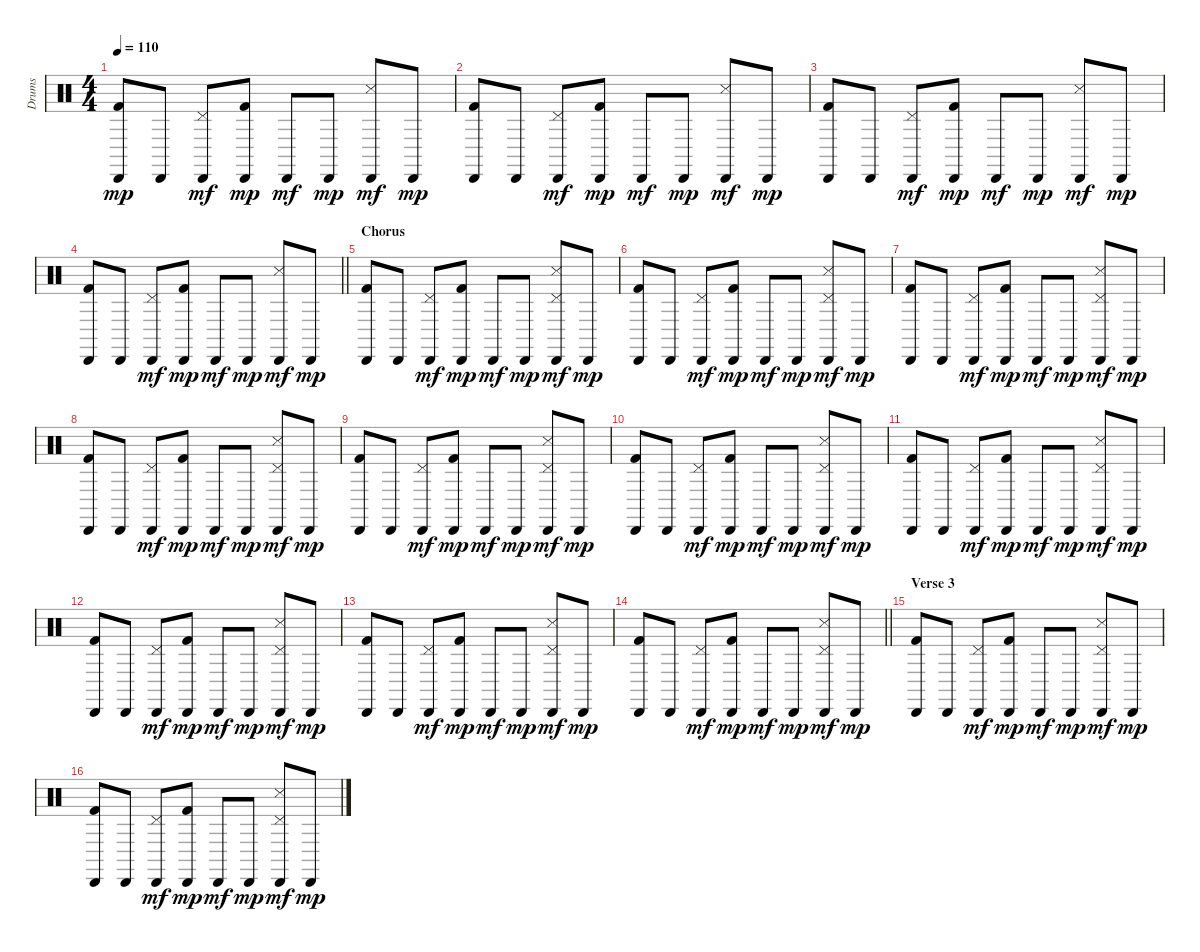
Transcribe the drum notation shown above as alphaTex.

\track ("Drums" "Drums") {instrument percussion}
\staff {score}
\articulation defaults
\ts (4 4)
\tempo 110
\clef neutral
\ks c
("Cabasa (hit)" "Kick (hit) 2").8{dy mp} "Cabasa (hit)".8 ("Cabasa (hit)" "Pedal Hi-Hat (hit)").8{dy mf} ("Cabasa (hit)" "Kick (hit) 2").8{dy mp} "Cabasa (hit)".8{dy mf} "Cabasa (hit)".8{dy mp} ("Cabasa (hit)" "Snare (side stick) 3").8{dy mf} "Cabasa (hit)".8{dy mp} |
("Cabasa (hit)" "Kick (hit) 2").8 "Cabasa (hit)".8 ("Cabasa (hit)" "Pedal Hi-Hat (hit)").8{dy mf} ("Cabasa (hit)" "Kick (hit) 2").8{dy mp} "Cabasa (hit)".8{dy mf} "Cabasa (hit)".8{dy mp} ("Cabasa (hit)" "Snare (side stick) 3").8{dy mf} "Cabasa (hit)".8{dy mp} |
("Cabasa (hit)" "Kick (hit) 2").8 "Cabasa (hit)".8 ("Cabasa (hit)" "Pedal Hi-Hat (hit)").8{dy mf} ("Cabasa (hit)" "Kick (hit) 2").8{dy mp} "Cabasa (hit)".8{dy mf} "Cabasa (hit)".8{dy mp} ("Cabasa (hit)" "Snare (side stick) 3").8{dy mf} "Cabasa (hit)".8{dy mp} |
\barLineRight lightlight
("Cabasa (hit)" "Kick (hit) 2").8 "Cabasa (hit)".8 ("Cabasa (hit)" "Pedal Hi-Hat (hit)").8{dy mf} ("Cabasa (hit)" "Kick (hit) 2").8{dy mp} "Cabasa (hit)".8{dy mf} "Cabasa (hit)".8{dy mp} ("Cabasa (hit)" "Snare (side stick) 3").8{dy mf} "Cabasa (hit)".8{dy mp} |
\section ("" "Chorus")
("Cabasa (hit)" "Kick (hit) 2").8 "Cabasa (hit)".8 ("Cabasa (hit)" "Pedal Hi-Hat (hit)").8{dy mf} ("Cabasa (hit)" "Kick (hit) 2").8{dy mp} "Cabasa (hit)".8{dy mf} "Cabasa (hit)".8{dy mp} ("Cabasa (hit)" "Pedal Hi-Hat (hit)" "Snare (side stick) 3").8{dy mf} "Cabasa (hit)".8{dy mp} |
("Cabasa (hit)" "Kick (hit) 2").8 "Cabasa (hit)".8 ("Cabasa (hit)" "Pedal Hi-Hat (hit)").8{dy mf} ("Cabasa (hit)" "Kick (hit) 2").8{dy mp} "Cabasa (hit)".8{dy mf} "Cabasa (hit)".8{dy mp} ("Cabasa (hit)" "Pedal Hi-Hat (hit)" "Snare (side stick) 3").8{dy mf} "Cabasa (hit)".8{dy mp} |
("Cabasa (hit)" "Kick (hit) 2").8 "Cabasa (hit)".8 ("Cabasa (hit)" "Pedal Hi-Hat (hit)").8{dy mf} ("Cabasa (hit)" "Kick (hit) 2").8{dy mp} "Cabasa (hit)".8{dy mf} "Cabasa (hit)".8{dy mp} ("Cabasa (hit)" "Pedal Hi-Hat (hit)" "Snare (side stick) 3").8{dy mf} "Cabasa (hit)".8{dy mp} |
("Cabasa (hit)" "Kick (hit) 2").8 "Cabasa (hit)".8 ("Cabasa (hit)" "Pedal Hi-Hat (hit)").8{dy mf} ("Cabasa (hit)" "Kick (hit) 2").8{dy mp} "Cabasa (hit)".8{dy mf} "Cabasa (hit)".8{dy mp} ("Cabasa (hit)" "Pedal Hi-Hat (hit)" "Snare (side stick) 3").8{dy mf} "Cabasa (hit)".8{dy mp} |
("Cabasa (hit)" "Kick (hit) 2").8 "Cabasa (hit)".8 ("Cabasa (hit)" "Pedal Hi-Hat (hit)").8{dy mf} ("Cabasa (hit)" "Kick (hit) 2").8{dy mp} "Cabasa (hit)".8{dy mf} "Cabasa (hit)".8{dy mp} ("Cabasa (hit)" "Pedal Hi-Hat (hit)" "Snare (side stick) 3").8{dy mf} "Cabasa (hit)".8{dy mp} |
("Cabasa (hit)" "Kick (hit) 2").8 "Cabasa (hit)".8 ("Cabasa (hit)" "Pedal Hi-Hat (hit)").8{dy mf} ("Cabasa (hit)" "Kick (hit) 2").8{dy mp} "Cabasa (hit)".8{dy mf} "Cabasa (hit)".8{dy mp} ("Cabasa (hit)" "Pedal Hi-Hat (hit)" "Snare (side stick) 3").8{dy mf} "Cabasa (hit)".8{dy mp} |
("Cabasa (hit)" "Kick (hit) 2").8 "Cabasa (hit)".8 ("Cabasa (hit)" "Pedal Hi-Hat (hit)").8{dy mf} ("Cabasa (hit)" "Kick (hit) 2").8{dy mp} "Cabasa (hit)".8{dy mf} "Cabasa (hit)".8{dy mp} ("Cabasa (hit)" "Pedal Hi-Hat (hit)" "Snare (side stick) 3").8{dy mf} "Cabasa (hit)".8{dy mp} |
("Cabasa (hit)" "Kick (hit) 2").8 "Cabasa (hit)".8 ("Cabasa (hit)" "Pedal Hi-Hat (hit)").8{dy mf} ("Cabasa (hit)" "Kick (hit) 2").8{dy mp} "Cabasa (hit)".8{dy mf} "Cabasa (hit)".8{dy mp} ("Cabasa (hit)" "Pedal Hi-Hat (hit)" "Snare (side stick) 3").8{dy mf} "Cabasa (hit)".8{dy mp} |
("Cabasa (hit)" "Kick (hit) 2").8 "Cabasa (hit)".8 ("Cabasa (hit)" "Pedal Hi-Hat (hit)").8{dy mf} ("Cabasa (hit)" "Kick (hit) 2").8{dy mp} "Cabasa (hit)".8{dy mf} "Cabasa (hit)".8{dy mp} ("Cabasa (hit)" "Pedal Hi-Hat (hit)" "Snare (side stick) 3").8{dy mf} "Cabasa (hit)".8{dy mp} |
\barLineRight lightlight
("Cabasa (hit)" "Kick (hit) 2").8 "Cabasa (hit)".8 ("Cabasa (hit)" "Pedal Hi-Hat (hit)").8{dy mf} ("Cabasa (hit)" "Kick (hit) 2").8{dy mp} "Cabasa (hit)".8{dy mf} "Cabasa (hit)".8{dy mp} ("Cabasa (hit)" "Pedal Hi-Hat (hit)" "Snare (side stick) 3").8{dy mf} "Cabasa (hit)".8{dy mp} |
\section ("" "Verse 3")
("Cabasa (hit)" "Kick (hit) 2").8 "Cabasa (hit)".8 ("Cabasa (hit)" "Pedal Hi-Hat (hit)").8{dy mf} ("Cabasa (hit)" "Kick (hit) 2").8{dy mp} "Cabasa (hit)".8{dy mf} "Cabasa (hit)".8{dy mp} ("Cabasa (hit)" "Pedal Hi-Hat (hit)" "Snare (side stick) 3").8{dy mf} "Cabasa (hit)".8{dy mp} |
("Cabasa (hit)" "Kick (hit) 2").8 "Cabasa (hit)".8 ("Cabasa (hit)" "Pedal Hi-Hat (hit)").8{dy mf} ("Cabasa (hit)" "Kick (hit) 2").8{dy mp} "Cabasa (hit)".8{dy mf} "Cabasa (hit)".8{dy mp} ("Cabasa (hit)" "Pedal Hi-Hat (hit)" "Snare (side stick) 3").8{dy mf} "Cabasa (hit)".8{dy mp}
